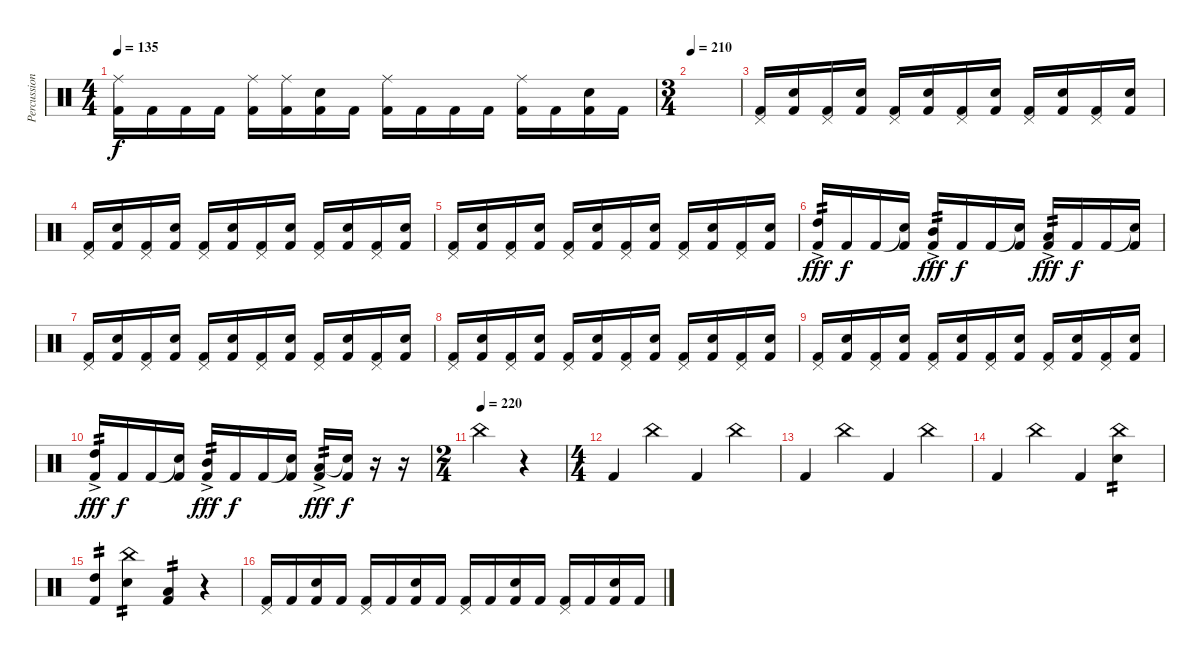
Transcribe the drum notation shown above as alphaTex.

\track ("Percussions" "Percussion") {instrument percussion}
\staff {score}
\articulation defaults
\ts (4 4)
\tempo 135
\clef neutral
\ks c
("Ride (middle)" "Kick (hit) 2").16{dy f} "Kick (hit) 2".16 "Kick (hit) 2".16 "Kick (hit) 2".16 ("Ride (middle)" "Kick (hit) 2").16 ("Ride (middle)" "Kick (hit) 2").16 ("Snare (hit) 2" "Kick (hit) 2").16 "Kick (hit) 2".16 ("Ride (middle)" "Kick (hit) 2").16 "Kick (hit) 2".16 "Kick (hit) 2".16 "Kick (hit) 2".16 ("Ride (middle)" "Kick (hit) 2").16 "Kick (hit) 2".16 ("Snare (hit) 2" "Kick (hit) 2").16 "Kick (hit) 2".16 |
\ts (3 4)
\tempo 210
|
("Pedal Hi-Hat (hit)" "Kick (hit) 2").16 ("Snare (hit) 2" "Kick (hit) 2").16 ("Pedal Hi-Hat (hit)" "Kick (hit) 2").16 ("Snare (hit) 2" "Kick (hit) 2").16 ("Pedal Hi-Hat (hit)" "Kick (hit) 2").16 ("Snare (hit) 2" "Kick (hit) 2").16 ("Pedal Hi-Hat (hit)" "Kick (hit) 2").16 ("Snare (hit) 2" "Kick (hit) 2").16 ("Pedal Hi-Hat (hit)" "Kick (hit) 2").16 ("Snare (hit) 2" "Kick (hit) 2").16 ("Pedal Hi-Hat (hit)" "Kick (hit) 2").16 ("Snare (hit) 2" "Kick (hit) 2").16 |
("Pedal Hi-Hat (hit)" "Kick (hit) 2").16 ("Snare (hit) 2" "Kick (hit) 2").16 ("Pedal Hi-Hat (hit)" "Kick (hit) 2").16 ("Snare (hit) 2" "Kick (hit) 2").16 ("Pedal Hi-Hat (hit)" "Kick (hit) 2").16 ("Snare (hit) 2" "Kick (hit) 2").16 ("Pedal Hi-Hat (hit)" "Kick (hit) 2").16 ("Snare (hit) 2" "Kick (hit) 2").16 ("Pedal Hi-Hat (hit)" "Kick (hit) 2").16 ("Snare (hit) 2" "Kick (hit) 2").16 ("Pedal Hi-Hat (hit)" "Kick (hit) 2").16 ("Snare (hit) 2" "Kick (hit) 2").16 |
("Pedal Hi-Hat (hit)" "Kick (hit) 2").16 ("Snare (hit) 2" "Kick (hit) 2").16 ("Pedal Hi-Hat (hit)" "Kick (hit) 2").16 ("Snare (hit) 2" "Kick (hit) 2").16 ("Pedal Hi-Hat (hit)" "Kick (hit) 2").16 ("Snare (hit) 2" "Kick (hit) 2").16 ("Pedal Hi-Hat (hit)" "Kick (hit) 2").16 ("Snare (hit) 2" "Kick (hit) 2").16 ("Pedal Hi-Hat (hit)" "Kick (hit) 2").16 ("Snare (hit) 2" "Kick (hit) 2").16 ("Pedal Hi-Hat (hit)" "Kick (hit) 2").16 ("Snare (hit) 2" "Kick (hit) 2").16 |
("High Tom (hit)"{ac} "Kick (hit) 2").16{tp 2 dy fff} "Kick (hit) 2".16{dy f} "Kick (hit) 2".16 ("Snare (hit) 2"{t} "Kick (hit) 2").16 ("Mid Tom (hit)"{ac} "Kick (hit) 2").16{tp 2 dy fff} "Kick (hit) 2".16{dy f} "Kick (hit) 2".16 ("Snare (hit) 2"{t} "Kick (hit) 2").16 ("Low Tom (hit)"{ac} "Kick (hit) 2").16{tp 2 dy fff} "Kick (hit) 2".16{dy f} "Kick (hit) 2".16 ("Snare (hit) 2"{t} "Kick (hit) 2").16 |
("Pedal Hi-Hat (hit)" "Kick (hit) 2").16 ("Snare (hit) 2" "Kick (hit) 2").16 ("Pedal Hi-Hat (hit)" "Kick (hit) 2").16 ("Snare (hit) 2" "Kick (hit) 2").16 ("Pedal Hi-Hat (hit)" "Kick (hit) 2").16 ("Snare (hit) 2" "Kick (hit) 2").16 ("Pedal Hi-Hat (hit)" "Kick (hit) 2").16 ("Snare (hit) 2" "Kick (hit) 2").16 ("Pedal Hi-Hat (hit)" "Kick (hit) 2").16 ("Snare (hit) 2" "Kick (hit) 2").16 ("Pedal Hi-Hat (hit)" "Kick (hit) 2").16 ("Snare (hit) 2" "Kick (hit) 2").16 |
("Pedal Hi-Hat (hit)" "Kick (hit) 2").16 ("Snare (hit) 2" "Kick (hit) 2").16 ("Pedal Hi-Hat (hit)" "Kick (hit) 2").16 ("Snare (hit) 2" "Kick (hit) 2").16 ("Pedal Hi-Hat (hit)" "Kick (hit) 2").16 ("Snare (hit) 2" "Kick (hit) 2").16 ("Pedal Hi-Hat (hit)" "Kick (hit) 2").16 ("Snare (hit) 2" "Kick (hit) 2").16 ("Pedal Hi-Hat (hit)" "Kick (hit) 2").16 ("Snare (hit) 2" "Kick (hit) 2").16 ("Pedal Hi-Hat (hit)" "Kick (hit) 2").16 ("Snare (hit) 2" "Kick (hit) 2").16 |
("Pedal Hi-Hat (hit)" "Kick (hit) 2").16 ("Snare (hit) 2" "Kick (hit) 2").16 ("Pedal Hi-Hat (hit)" "Kick (hit) 2").16 ("Snare (hit) 2" "Kick (hit) 2").16 ("Pedal Hi-Hat (hit)" "Kick (hit) 2").16 ("Snare (hit) 2" "Kick (hit) 2").16 ("Pedal Hi-Hat (hit)" "Kick (hit) 2").16 ("Snare (hit) 2" "Kick (hit) 2").16 ("Pedal Hi-Hat (hit)" "Kick (hit) 2").16 ("Snare (hit) 2" "Kick (hit) 2").16 ("Pedal Hi-Hat (hit)" "Kick (hit) 2").16 ("Snare (hit) 2" "Kick (hit) 2").16 |
("High Tom (hit)"{ac} "Kick (hit) 2").16{tp 2 dy fff} "Kick (hit) 2".16{dy f} "Kick (hit) 2".16 ("Snare (hit) 2"{t} "Kick (hit) 2").16 ("Mid Tom (hit)"{ac} "Kick (hit) 2").16{tp 2 dy fff} "Kick (hit) 2".16{dy f} "Kick (hit) 2".16 ("Snare (hit) 2"{t} "Kick (hit) 2").16 ("Low Tom (hit)"{ac} "Kick (hit) 2").16{tp 2 dy fff} ("Snare (hit)"{t} "Kick (hit) 2").16{dy f} r.16 r.16 |
\ts (2 4)
\tempo (220)
"China (hit)".4 r.4 |
\ts (4 4)
"Kick (hit) 2".4 "China (hit)".4 "Kick (hit) 2".4 "China (hit)".4 |
"Kick (hit) 2".4 "China (hit)".4 "Kick (hit) 2".4 "China (hit)".4 |
"Kick (hit) 2".4 "China (hit)".4 "Kick (hit) 2".4 ("Snare (hit) 2" "China (hit)").4{tp 2} |
("High Tom (hit)" "Kick (hit) 2").4{tp 2} ("Snare (hit) 2" "China (hit)").4{tp 2} ("Low Tom (hit)" "Kick (hit) 2").4{tp 2} r.4 |
("Pedal Hi-Hat (hit)" "Kick (hit) 2").16 "Kick (hit) 2".16 ("Snare (hit) 2" "Kick (hit) 2").16 "Kick (hit) 2".16 ("Pedal Hi-Hat (hit)" "Kick (hit) 2").16 "Kick (hit) 2".16 ("Snare (hit) 2" "Kick (hit) 2").16 "Kick (hit) 2".16 ("Pedal Hi-Hat (hit)" "Kick (hit) 2").16 "Kick (hit) 2".16 ("Snare (hit) 2" "Kick (hit) 2").16 "Kick (hit) 2".16 ("Pedal Hi-Hat (hit)" "Kick (hit) 2").16 "Kick (hit) 2".16 ("Snare (hit) 2" "Kick (hit) 2").16 "Kick (hit) 2".16
